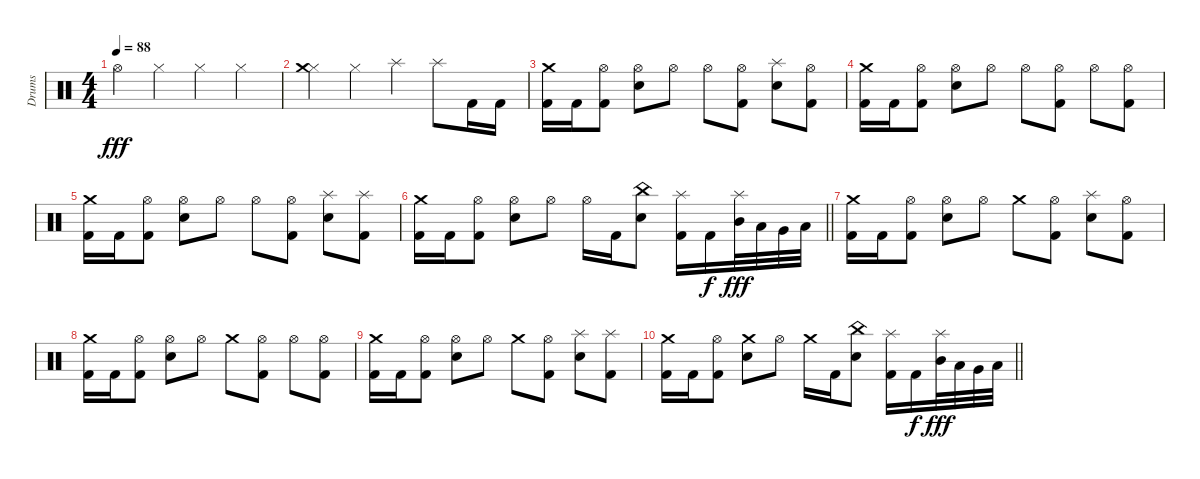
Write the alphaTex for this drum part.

\track ("Drums" "Drums") {instrument percussion}
\staff {score}
\articulation defaults
\ts (4 4)
\tempo 88
\clef neutral
\ks c "Hi-Hat (open)".4{dy fff} "Hi-Hat (closed)".4 "Hi-Hat (closed)".4 "Hi-Hat (closed)".4
|
("Hi-Hat (closed)" "Crash medium (hit)").4 "Hi-Hat (closed)".4 "Splash (hit)".4 "Splash (hit)".8 "Kick (hit) 2".16 "Kick (hit) 2".16 |
("Kick (hit) 2" "Crash medium (hit)").16 "Kick (hit) 2".16 ("Kick (hit) 2" "Hi-Hat (open)").8 ("Electric Snare (hit)" "Hi-Hat (open)").8 "Hi-Hat (open)".8 "Hi-Hat (open)".8 ("Kick (hit) 2" "Hi-Hat (open)").8 ("Electric Snare (hit)" "Splash (hit)").8 ("Kick (hit) 2" "Hi-Hat (open)").8 |
("Kick (hit) 2" "Crash medium (hit)").16 "Kick (hit) 2".16 ("Kick (hit) 2" "Hi-Hat (open)").8 ("Electric Snare (hit)" "Hi-Hat (open)").8 "Hi-Hat (open)".8 "Hi-Hat (open)".8 ("Kick (hit) 2" "Hi-Hat (open)").8 "Hi-Hat (open)".8 ("Kick (hit) 2" "Hi-Hat (open)").8 |
("Kick (hit) 2" "Crash medium (hit)").16 "Kick (hit) 2".16 ("Kick (hit) 2" "Hi-Hat (open)").8 ("Electric Snare (hit)" "Hi-Hat (open)").8 "Hi-Hat (open)".8 "Hi-Hat (open)".8 ("Kick (hit) 2" "Hi-Hat (open)").8 ("Electric Snare (hit)" "Splash (hit)").8 ("Kick (hit) 2" "Splash (hit)").8 |
\barLineRight lightlight
("Kick (hit) 2" "Crash medium (hit)").16 "Kick (hit) 2".16 ("Kick (hit) 2" "Hi-Hat (open)").8 ("Electric Snare (hit)" "Hi-Hat (open)").8 "Hi-Hat (open)".8 "Hi-Hat (open)".16 "Kick (hit) 2".16 ("Electric Snare (hit)" "China (hit)").8 ("Kick (hit) 2" "Splash (hit)").16 "Kick (hit) 2".16{dy f} ("Mid Tom (hit)" "Splash (hit)").32{dy fff} "Low Tom (hit)".32 "Very Low Tom (hit)".32 "Low Floor Tom (hit)".32 |
("Kick (hit) 2" "Crash medium (hit)").16 "Kick (hit) 2".16 ("Kick (hit) 2" "Hi-Hat (open)").8 ("Electric Snare (hit)" "Hi-Hat (open)").8 "Hi-Hat (open)".8 "Crash medium (hit)".8 ("Kick (hit) 2" "Hi-Hat (open)").8 ("Electric Snare (hit)" "Splash (hit)").8 ("Kick (hit) 2" "Hi-Hat (open)").8 |
("Kick (hit) 2" "Crash medium (hit)").16 "Kick (hit) 2".16 ("Kick (hit) 2" "Hi-Hat (open)").8 ("Electric Snare (hit)" "Hi-Hat (open)").8 "Hi-Hat (open)".8 "Crash medium (hit)".8 ("Kick (hit) 2" "Hi-Hat (open)").8 "Hi-Hat (open)".8 ("Kick (hit) 2" "Hi-Hat (open)").8 |
("Kick (hit) 2" "Crash medium (hit)").16 "Kick (hit) 2".16 ("Kick (hit) 2" "Hi-Hat (open)").8 ("Electric Snare (hit)" "Hi-Hat (open)").8 "Hi-Hat (open)".8 "Crash medium (hit)".8 ("Kick (hit) 2" "Hi-Hat (open)").8 ("Electric Snare (hit)" "Splash (hit)").8 ("Kick (hit) 2" "Splash (hit)").8 |
\barLineRight lightlight
("Kick (hit) 2" "Crash medium (hit)").16 "Kick (hit) 2".16 ("Kick (hit) 2" "Hi-Hat (open)").8 ("Electric Snare (hit)" "Crash medium (hit)").8 "Hi-Hat (open)".8 "Crash medium (hit)".16 "Kick (hit) 2".16 ("Electric Snare (hit)" "China (hit)").8 ("Kick (hit) 2" "Splash (hit)").16 "Kick (hit) 2".16{dy f} ("Mid Tom (hit)" "Splash (hit)").32{dy fff} "Low Tom (hit)".32 "Very Low Tom (hit)".32 "Low Floor Tom (hit)".32
